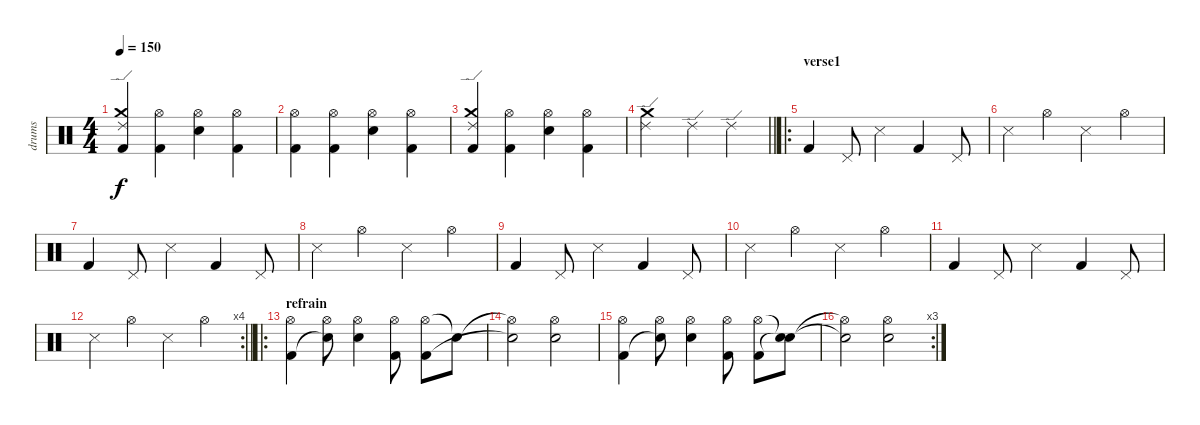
\track ("drums" "drums") {instrument percussion}
\staff {score}
\articulation defaults
\ts (4 4)
\tempo 150
\clef neutral
\ks c
("Kick (hit) 2" "Crash medium (hit)" "Ride (edge) 2").4{dy f} ("Hi-Hat (open)" "Kick (hit) 2").4 ("Hi-Hat (open)" "Electric Snare (hit)").4 ("Hi-Hat (open)" "Kick (hit) 2").4 |
("Hi-Hat (open)" "Kick (hit) 2").4 ("Hi-Hat (open)" "Kick (hit) 2").4 ("Hi-Hat (open)" "Electric Snare (hit)").4 ("Hi-Hat (open)" "Kick (hit) 2").4 |
("Kick (hit) 2" "Crash medium (hit)" "Ride (edge) 2").4 ("Hi-Hat (open)" "Kick (hit) 2").4 ("Hi-Hat (open)" "Electric Snare (hit)").4 ("Hi-Hat (open)" "Kick (hit) 2").4 |
\barLineRight lightlight
("Crash medium (hit)" "Ride (edge) 2").2 "Ride (edge) 2".4 "Ride (edge) 2".4 |
\ro
\section ("" "verse1")
"Kick (hit) 2".4 "Pedal Hi-Hat (hit)".8 "Snare (side stick) 3".4 "Kick (hit) 2".4 "Pedal Hi-Hat (hit)".8 |
"Snare (side stick) 3".4 "Hi-Hat (open)".4 "Snare (side stick) 3".4 "Hi-Hat (open)".4 |
"Kick (hit) 2".4 "Pedal Hi-Hat (hit)".8 "Snare (side stick) 3".4 "Kick (hit) 2".4 "Pedal Hi-Hat (hit)".8 |
"Snare (side stick) 3".4 "Hi-Hat (open)".4 "Snare (side stick) 3".4 "Hi-Hat (open)".4 |
"Kick (hit) 2".4 "Pedal Hi-Hat (hit)".8 "Snare (side stick) 3".4 "Kick (hit) 2".4 "Pedal Hi-Hat (hit)".8 |
"Snare (side stick) 3".4 "Hi-Hat (open)".4 "Snare (side stick) 3".4 "Hi-Hat (open)".4 |
"Kick (hit) 2".4 "Pedal Hi-Hat (hit)".8 "Snare (side stick) 3".4 "Kick (hit) 2".4 "Pedal Hi-Hat (hit)".8 |
\rc 4
\barLineRight lightlight "Snare (side stick) 3".4 "Hi-Hat (open)".4 "Snare (side stick) 3".4 "Hi-Hat (open)".4
|
\ro
\section ("" "refrain")
("Hi-Hat (open)" "Kick (hit) 2").4 ("Hi-Hat (open)" "Snare (hit)"{t}).8 ("Hi-Hat (open)" "Electric Snare (hit)").4 ("Hi-Hat (open)" "Kick (hit) 2").8 ("Hi-Hat (open)" "Kick (hit) 2").8 "Snare (hit)"{t}.8 |
("Hi-Hat (open)"{t} "Electric Snare (hit)"{t}).2 ("Hi-Hat (open)" "Electric Snare (hit)").2 |
("Hi-Hat (open)" "Kick (hit) 2").4 ("Hi-Hat (open)" "Snare (hit)"{t}).8 ("Hi-Hat (open)" "Electric Snare (hit)").4 ("Hi-Hat (open)" "Kick (hit) 2").8 ("Hi-Hat (open)" "Kick (hit) 2").8 ("Snare (hit)"{t} "Snare (hit)"{t}).8 |
\rc 3
("Hi-Hat (open)"{t} "Electric Snare (hit)"{t}).2 ("Hi-Hat (open)" "Electric Snare (hit)").2
